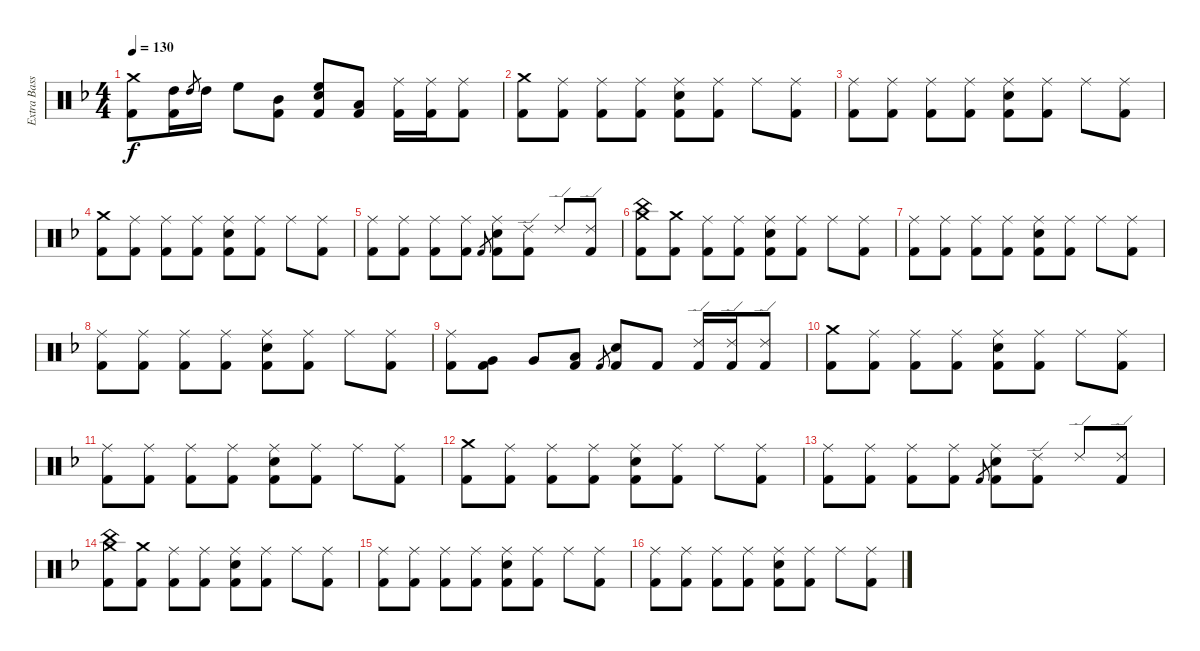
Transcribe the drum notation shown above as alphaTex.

\track ("Extra BassDrum" "Extra Bass") {instrument percussion}
\staff {score}
\articulation defaults
\ts (4 4)
\tempo 130
\clef neutral
\ks f
("Crash medium (hit)" "Kick (hit) 2").8{dy f} ("High Tom (hit)" "Kick (hit) 2").16 "High Tom (hit)".8{gr} "High Tom (hit)".16 "High Floor Tom (hit)".8 ("Mid Tom (hit)" "Kick (hit) 2").8 ("High Floor Tom (hit)" "Snare (hit) 2" "Kick (hit) 2").8 ("Low Tom (hit)" "Kick (hit) 2").8 ("Ride (middle)" "Kick (hit) 2").16 ("Ride (middle)" "Kick (hit) 2").16 ("Ride (middle)" "Kick (hit) 2").8 |
("Crash medium (hit)" "Kick (hit) 2").8 ("Ride (middle)" "Kick (hit) 2").8 ("Ride (middle)" "Kick (hit) 2").8 ("Ride (middle)" "Kick (hit) 2").8 ("Ride (middle)" "Snare (hit) 2" "Kick (hit) 2").8 ("Ride (middle)" "Kick (hit) 2").8 "Ride (middle)".8 ("Ride (middle)" "Kick (hit) 2").8 |
("Ride (middle)" "Kick (hit) 2").8 ("Ride (middle)" "Kick (hit) 2").8 ("Ride (middle)" "Kick (hit) 2").8 ("Ride (middle)" "Kick (hit) 2").8 ("Ride (middle)" "Snare (hit) 2" "Kick (hit) 2").8 ("Ride (middle)" "Kick (hit) 2").8 "Ride (middle)".8 ("Ride (middle)" "Kick (hit) 2").8 |
("Crash medium (hit)" "Kick (hit) 2").8 ("Ride (middle)" "Kick (hit) 2").8 ("Ride (middle)" "Kick (hit) 2").8 ("Ride (middle)" "Kick (hit) 2").8 ("Ride (middle)" "Snare (hit) 2" "Kick (hit) 2").8 ("Ride (middle)" "Kick (hit) 2").8 "Ride (middle)".8 ("Ride (middle)" "Kick (hit) 2").8 |
("Ride (middle)" "Kick (hit) 2").8 ("Ride (middle)" "Kick (hit) 2").8 ("Ride (middle)" "Kick (hit) 2").8 ("Ride (middle)" "Kick (hit) 2").8 "Kick (hit) 2".8{gr} ("Ride (middle)" "Snare (hit) 2" "Kick (hit) 2").8 ("Ride (edge) 2" "Kick (hit) 2").8 "Ride (edge) 2".8 ("Ride (edge) 2" "Kick (hit) 2").8 |
("China (hit)" "Crash medium (hit)" "Kick (hit) 2").8 ("Crash medium (hit)" "Kick (hit) 2").8 ("Ride (middle)" "Kick (hit) 2").8 ("Ride (middle)" "Kick (hit) 2").8 ("Ride (middle)" "Snare (hit) 2" "Kick (hit) 2").8 ("Ride (middle)" "Kick (hit) 2").8 "Ride (middle)".8 ("Ride (middle)" "Kick (hit) 2").8 |
("Ride (middle)" "Kick (hit) 2").8 ("Ride (middle)" "Kick (hit) 2").8 ("Ride (middle)" "Kick (hit) 2").8 ("Ride (middle)" "Kick (hit) 2").8 ("Ride (middle)" "Snare (hit) 2" "Kick (hit) 2").8 ("Ride (middle)" "Kick (hit) 2").8 "Ride (middle)".8 ("Ride (middle)" "Kick (hit) 2").8 |
("Ride (middle)" "Kick (hit) 2").8 ("Ride (middle)" "Kick (hit) 2").8 ("Ride (middle)" "Kick (hit) 2").8 ("Ride (middle)" "Kick (hit) 2").8 ("Ride (middle)" "Snare (hit) 2" "Kick (hit) 2").8 ("Ride (middle)" "Kick (hit) 2").8 "Ride (middle)".8 ("Ride (middle)" "Kick (hit) 2").8 |
("Ride (middle)" "Kick (hit) 2").8 ("Very Low Tom (hit)" "Kick (hit) 2").8 "Very Low Tom (hit)".8 ("Low Floor Tom (hit)" "Kick (hit) 2").8 "Kick (hit) 2".8{gr} ("Snare (hit) 2" "Kick (hit) 2").8 "Kick (hit) 2".8 ("Ride (edge) 2" "Kick (hit) 2").16 ("Ride (edge) 2" "Kick (hit) 2").16 ("Ride (edge) 2" "Kick (hit) 2").8 |
("Crash medium (hit)" "Kick (hit) 2").8 ("Ride (middle)" "Kick (hit) 2").8 ("Ride (middle)" "Kick (hit) 2").8 ("Ride (middle)" "Kick (hit) 2").8 ("Ride (middle)" "Snare (hit) 2" "Kick (hit) 2").8 ("Ride (middle)" "Kick (hit) 2").8 "Ride (middle)".8 ("Ride (middle)" "Kick (hit) 2").8 |
("Ride (middle)" "Kick (hit) 2").8 ("Ride (middle)" "Kick (hit) 2").8 ("Ride (middle)" "Kick (hit) 2").8 ("Ride (middle)" "Kick (hit) 2").8 ("Ride (middle)" "Snare (hit) 2" "Kick (hit) 2").8 ("Ride (middle)" "Kick (hit) 2").8 "Ride (middle)".8 ("Ride (middle)" "Kick (hit) 2").8 |
("Crash medium (hit)" "Kick (hit) 2").8 ("Ride (middle)" "Kick (hit) 2").8 ("Ride (middle)" "Kick (hit) 2").8 ("Ride (middle)" "Kick (hit) 2").8 ("Ride (middle)" "Snare (hit) 2" "Kick (hit) 2").8 ("Ride (middle)" "Kick (hit) 2").8 "Ride (middle)".8 ("Ride (middle)" "Kick (hit) 2").8 |
("Ride (middle)" "Kick (hit) 2").8 ("Ride (middle)" "Kick (hit) 2").8 ("Ride (middle)" "Kick (hit) 2").8 ("Ride (middle)" "Kick (hit) 2").8 "Kick (hit) 2".8{gr} ("Ride (middle)" "Snare (hit) 2" "Kick (hit) 2").8 ("Ride (edge) 2" "Kick (hit) 2").8 "Ride (edge) 2".8 ("Ride (edge) 2" "Kick (hit) 2").8 |
("China (hit)" "Crash medium (hit)" "Kick (hit) 2").8 ("Crash medium (hit)" "Kick (hit) 2").8 ("Ride (middle)" "Kick (hit) 2").8 ("Ride (middle)" "Kick (hit) 2").8 ("Ride (middle)" "Snare (hit) 2" "Kick (hit) 2").8 ("Ride (middle)" "Kick (hit) 2").8 "Ride (middle)".8 ("Ride (middle)" "Kick (hit) 2").8 |
("Ride (middle)" "Kick (hit) 2").8 ("Ride (middle)" "Kick (hit) 2").8 ("Ride (middle)" "Kick (hit) 2").8 ("Ride (middle)" "Kick (hit) 2").8 ("Ride (middle)" "Snare (hit) 2" "Kick (hit) 2").8 ("Ride (middle)" "Kick (hit) 2").8 "Ride (middle)".8 ("Ride (middle)" "Kick (hit) 2").8 |
("Ride (middle)" "Kick (hit) 2").8 ("Ride (middle)" "Kick (hit) 2").8 ("Ride (middle)" "Kick (hit) 2").8 ("Ride (middle)" "Kick (hit) 2").8 ("Ride (middle)" "Snare (hit) 2" "Kick (hit) 2").8 ("Ride (middle)" "Kick (hit) 2").8 "Ride (middle)".8 ("Ride (middle)" "Kick (hit) 2").8
